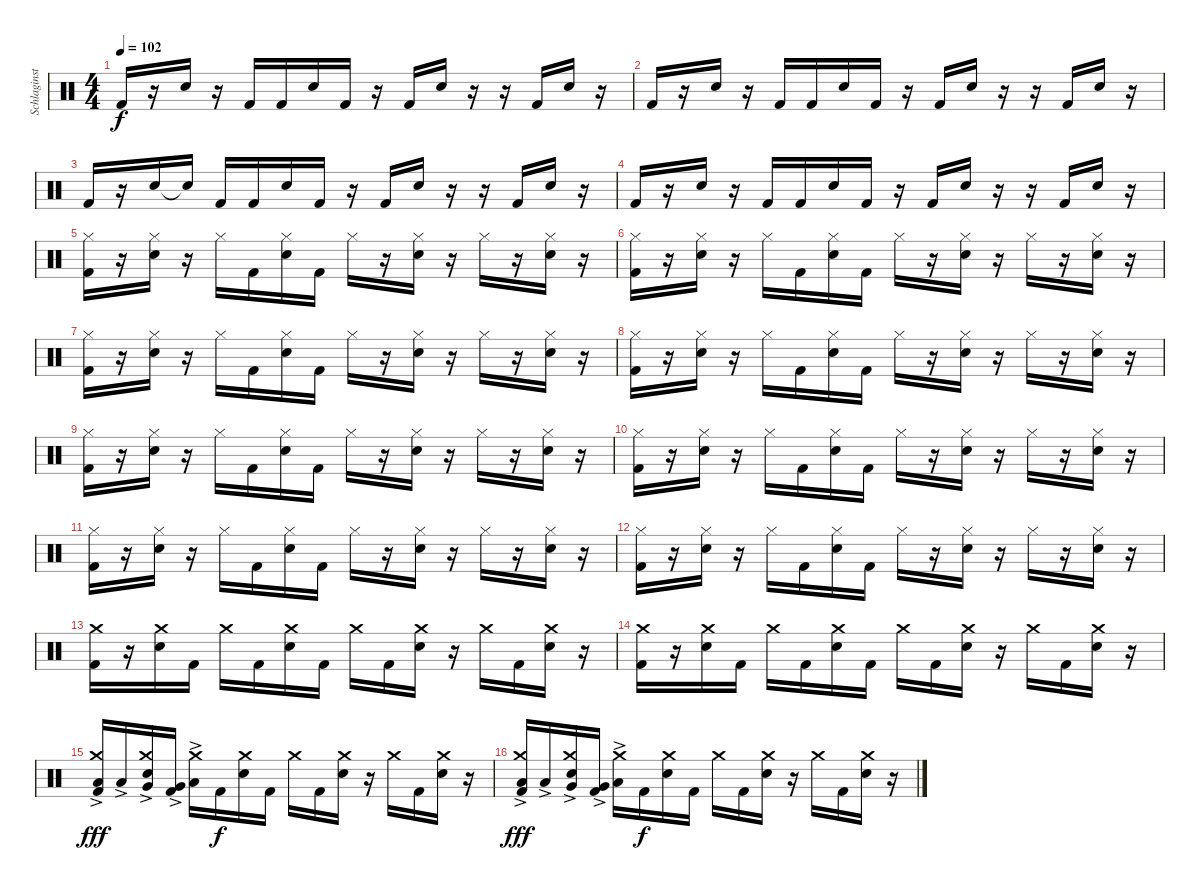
\track ("Schlaginstrumente - Auswahl" "Schlaginst") {instrument percussion}
\staff {score}
\articulation defaults
\ts (4 4)
\tempo 102
\clef neutral
\ks c "Kick (hit) 2".16{dy f}
r.16 "Snare (hit) 2".16 r.16 "Kick (hit) 2".16 "Kick (hit) 2".16 "Snare (hit) 2".16 "Kick (hit) 2".16 r.16 "Kick (hit) 2".16 "Snare (hit) 2".16 r.16 r.16 "Kick (hit) 2".16 "Snare (hit) 2".16 r.16 |
"Kick (hit) 2".16 r.16 "Snare (hit) 2".16 r.16 "Kick (hit) 2".16 "Kick (hit) 2".16 "Snare (hit) 2".16 "Kick (hit) 2".16 r.16 "Kick (hit) 2".16 "Snare (hit) 2".16 r.16 r.16 "Kick (hit) 2".16 "Snare (hit) 2".16 r.16 |
"Kick (hit) 2".16 r.16 "Snare (hit) 2".16 "Snare (hit)"{t}.16 "Kick (hit) 2".16 "Kick (hit) 2".16 "Snare (hit) 2".16 "Kick (hit) 2".16 r.16 "Kick (hit) 2".16 "Snare (hit) 2".16 r.16 r.16 "Kick (hit) 2".16 "Snare (hit) 2".16 r.16 |
"Kick (hit) 2".16 r.16 "Snare (hit) 2".16 r.16 "Kick (hit) 2".16 "Kick (hit) 2".16 "Snare (hit) 2".16 "Kick (hit) 2".16 r.16 "Kick (hit) 2".16 "Snare (hit) 2".16 r.16 r.16 "Kick (hit) 2".16 "Snare (hit) 2".16 r.16 |
("Hi-Hat (closed)" "Kick (hit) 2").16 r.16 ("Hi-Hat (closed)" "Snare (hit) 2").16 r.16 "Hi-Hat (closed)".16 "Kick (hit) 2".16 ("Hi-Hat (closed)" "Snare (hit) 2").16 "Kick (hit) 2".16 "Hi-Hat (closed)".16 r.16 ("Hi-Hat (closed)" "Snare (hit) 2").16 r.16 "Hi-Hat (closed)".16 r.16 ("Hi-Hat (closed)" "Snare (hit) 2").16 r.16 |
("Hi-Hat (closed)" "Kick (hit) 2").16 r.16 ("Hi-Hat (closed)" "Snare (hit) 2").16 r.16 "Hi-Hat (closed)".16 "Kick (hit) 2".16 ("Hi-Hat (closed)" "Snare (hit) 2").16 "Kick (hit) 2".16 "Hi-Hat (closed)".16 r.16 ("Hi-Hat (closed)" "Snare (hit) 2").16 r.16 "Hi-Hat (closed)".16 r.16 ("Hi-Hat (closed)" "Snare (hit) 2").16 r.16 |
("Hi-Hat (closed)" "Kick (hit) 2").16 r.16 ("Hi-Hat (closed)" "Snare (hit) 2").16 r.16 "Hi-Hat (closed)".16 "Kick (hit) 2".16 ("Hi-Hat (closed)" "Snare (hit) 2").16 "Kick (hit) 2".16 "Hi-Hat (closed)".16 r.16 ("Hi-Hat (closed)" "Snare (hit) 2").16 r.16 "Hi-Hat (closed)".16 r.16 ("Hi-Hat (closed)" "Snare (hit) 2").16 r.16 |
("Hi-Hat (closed)" "Kick (hit) 2").16 r.16 ("Hi-Hat (closed)" "Snare (hit) 2").16 r.16 "Hi-Hat (closed)".16 "Kick (hit) 2".16 ("Hi-Hat (closed)" "Snare (hit) 2").16 "Kick (hit) 2".16 "Hi-Hat (closed)".16 r.16 ("Hi-Hat (closed)" "Snare (hit) 2").16 r.16 "Hi-Hat (closed)".16 r.16 ("Hi-Hat (closed)" "Snare (hit) 2").16 r.16 |
("Hi-Hat (closed)" "Kick (hit) 2").16 r.16 ("Hi-Hat (closed)" "Snare (hit) 2").16 r.16 "Hi-Hat (closed)".16 "Kick (hit) 2".16 ("Hi-Hat (closed)" "Snare (hit) 2").16 "Kick (hit) 2".16 "Hi-Hat (closed)".16 r.16 ("Hi-Hat (closed)" "Snare (hit) 2").16 r.16 "Hi-Hat (closed)".16 r.16 ("Hi-Hat (closed)" "Snare (hit) 2").16 r.16 |
("Hi-Hat (closed)" "Kick (hit) 2").16 r.16 ("Hi-Hat (closed)" "Snare (hit) 2").16 r.16 "Hi-Hat (closed)".16 "Kick (hit) 2".16 ("Hi-Hat (closed)" "Snare (hit) 2").16 "Kick (hit) 2".16 "Hi-Hat (closed)".16 r.16 ("Hi-Hat (closed)" "Snare (hit) 2").16 r.16 "Hi-Hat (closed)".16 r.16 ("Hi-Hat (closed)" "Snare (hit) 2").16 r.16 |
("Hi-Hat (closed)" "Kick (hit) 2").16 r.16 ("Hi-Hat (closed)" "Snare (hit) 2").16 r.16 "Hi-Hat (closed)".16 "Kick (hit) 2".16 ("Hi-Hat (closed)" "Snare (hit) 2").16 "Kick (hit) 2".16 "Hi-Hat (closed)".16 r.16 ("Hi-Hat (closed)" "Snare (hit) 2").16 r.16 "Hi-Hat (closed)".16 r.16 ("Hi-Hat (closed)" "Snare (hit) 2").16 r.16 |
("Hi-Hat (closed)" "Kick (hit) 2").16 r.16 ("Hi-Hat (closed)" "Snare (hit) 2").16 r.16 "Hi-Hat (closed)".16 "Kick (hit) 2".16 ("Hi-Hat (closed)" "Snare (hit) 2").16 "Kick (hit) 2".16 "Hi-Hat (closed)".16 r.16 ("Hi-Hat (closed)" "Snare (hit) 2").16 r.16 "Hi-Hat (closed)".16 r.16 ("Hi-Hat (closed)" "Snare (hit) 2").16 r.16 |
("Crash medium (hit)" "Kick (hit) 2").16 r.16 ("Crash medium (hit)" "Snare (hit) 2").16 "Kick (hit) 2".16 "Crash medium (hit)".16 "Kick (hit) 2".16 ("Crash medium (hit)" "Snare (hit) 2").16 "Kick (hit) 2".16 "Crash medium (hit)".16 "Kick (hit) 2".16 ("Crash medium (hit)" "Snare (hit) 2").16 r.16 "Crash medium (hit)".16 "Kick (hit) 2".16 ("Crash medium (hit)" "Snare (hit) 2").16 r.16 |
("Crash medium (hit)" "Kick (hit) 2").16 r.16 ("Crash medium (hit)" "Snare (hit) 2").16 "Kick (hit) 2".16 "Crash medium (hit)".16 "Kick (hit) 2".16 ("Crash medium (hit)" "Snare (hit) 2").16 "Kick (hit) 2".16 "Crash medium (hit)".16 "Kick (hit) 2".16 ("Crash medium (hit)" "Snare (hit) 2").16 r.16 "Crash medium (hit)".16 "Kick (hit) 2".16 ("Crash medium (hit)" "Snare (hit) 2").16 r.16 |
("Crash medium (hit)" "Low Tom (hit)"{ac} "Kick (hit) 2").16{dy fff} "Low Tom (hit)"{ac}.16 ("Crash medium (hit)" "Very Low Tom (hit)"{ac} "Snare (hit) 2").16 ("Very Low Tom (hit)"{ac} "Kick (hit) 2").16 ("Crash medium (hit)" "Low Floor Tom (hit)"{ac}).16 "Kick (hit) 2".16{dy f} ("Crash medium (hit)" "Snare (hit) 2").16 "Kick (hit) 2".16 "Crash medium (hit)".16 "Kick (hit) 2".16 ("Crash medium (hit)" "Snare (hit) 2").16 r.16 "Crash medium (hit)".16 "Kick (hit) 2".16 ("Crash medium (hit)" "Snare (hit) 2").16 r.16 |
("Crash medium (hit)" "Low Tom (hit)"{ac} "Kick (hit) 2").16{dy fff} "Low Tom (hit)"{ac}.16 ("Crash medium (hit)" "Very Low Tom (hit)"{ac} "Snare (hit) 2").16 ("Very Low Tom (hit)"{ac} "Kick (hit) 2").16 ("Crash medium (hit)" "Low Floor Tom (hit)"{ac}).16 "Kick (hit) 2".16{dy f} ("Crash medium (hit)" "Snare (hit) 2").16 "Kick (hit) 2".16 "Crash medium (hit)".16 "Kick (hit) 2".16 ("Crash medium (hit)" "Snare (hit) 2").16 r.16 "Crash medium (hit)".16 "Kick (hit) 2".16 ("Crash medium (hit)" "Snare (hit) 2").16 r.16
